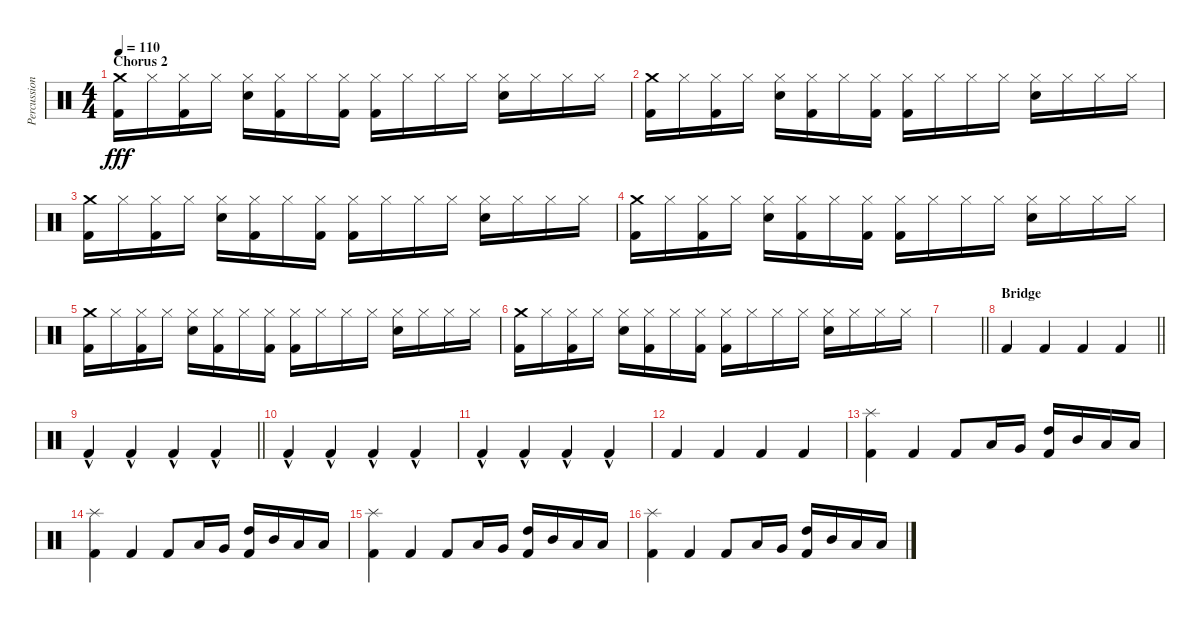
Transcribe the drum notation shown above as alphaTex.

\track ("Percussion" "Percussion") {instrument percussion}
\staff {score}
\articulation defaults
\ts (4 4)
\section ("" "Chorus 2")
\tempo 110
\clef neutral
\ks c
("Crash medium (hit)" "Kick (hit) 2").16{dy fff} "Hi-Hat (closed)".16 ("Hi-Hat (closed)" "Kick (hit) 2").16 "Hi-Hat (closed)".16 ("Hi-Hat (closed)" "Snare (hit) 2").16 ("Hi-Hat (closed)" "Kick (hit) 2").16 "Hi-Hat (closed)".16 ("Hi-Hat (closed)" "Kick (hit) 2").16 ("Hi-Hat (closed)" "Kick (hit) 2").16 "Hi-Hat (closed)".16 "Hi-Hat (closed)".16 "Hi-Hat (closed)".16 ("Hi-Hat (closed)" "Snare (hit) 2").16 "Hi-Hat (closed)".16 "Hi-Hat (closed)".16 "Hi-Hat (closed)".16 |
("Crash medium (hit)" "Kick (hit) 2").16 "Hi-Hat (closed)".16 ("Hi-Hat (closed)" "Kick (hit) 2").16 "Hi-Hat (closed)".16 ("Hi-Hat (closed)" "Snare (hit) 2").16 ("Hi-Hat (closed)" "Kick (hit) 2").16 "Hi-Hat (closed)".16 ("Hi-Hat (closed)" "Kick (hit) 2").16 ("Hi-Hat (closed)" "Kick (hit) 2").16 "Hi-Hat (closed)".16 "Hi-Hat (closed)".16 "Hi-Hat (closed)".16 ("Hi-Hat (closed)" "Snare (hit) 2").16 "Hi-Hat (closed)".16 "Hi-Hat (closed)".16 "Hi-Hat (closed)".16 |
("Crash medium (hit)" "Kick (hit) 2").16 "Hi-Hat (closed)".16 ("Hi-Hat (closed)" "Kick (hit) 2").16 "Hi-Hat (closed)".16 ("Hi-Hat (closed)" "Snare (hit) 2").16 ("Hi-Hat (closed)" "Kick (hit) 2").16 "Hi-Hat (closed)".16 ("Hi-Hat (closed)" "Kick (hit) 2").16 ("Hi-Hat (closed)" "Kick (hit) 2").16 "Hi-Hat (closed)".16 "Hi-Hat (closed)".16 "Hi-Hat (closed)".16 ("Hi-Hat (closed)" "Snare (hit) 2").16 "Hi-Hat (closed)".16 "Hi-Hat (closed)".16 "Hi-Hat (closed)".16 |
("Crash medium (hit)" "Kick (hit) 2").16 "Hi-Hat (closed)".16 ("Hi-Hat (closed)" "Kick (hit) 2").16 "Hi-Hat (closed)".16 ("Hi-Hat (closed)" "Snare (hit) 2").16 ("Hi-Hat (closed)" "Kick (hit) 2").16 "Hi-Hat (closed)".16 ("Hi-Hat (closed)" "Kick (hit) 2").16 ("Hi-Hat (closed)" "Kick (hit) 2").16 "Hi-Hat (closed)".16 "Hi-Hat (closed)".16 "Hi-Hat (closed)".16 ("Hi-Hat (closed)" "Snare (hit) 2").16 "Hi-Hat (closed)".16 "Hi-Hat (closed)".16 "Hi-Hat (closed)".16 |
("Crash medium (hit)" "Kick (hit) 2").16 "Hi-Hat (closed)".16 ("Hi-Hat (closed)" "Kick (hit) 2").16 "Hi-Hat (closed)".16 ("Hi-Hat (closed)" "Snare (hit) 2").16 ("Hi-Hat (closed)" "Kick (hit) 2").16 "Hi-Hat (closed)".16 ("Hi-Hat (closed)" "Kick (hit) 2").16 ("Hi-Hat (closed)" "Kick (hit) 2").16 "Hi-Hat (closed)".16 "Hi-Hat (closed)".16 "Hi-Hat (closed)".16 ("Hi-Hat (closed)" "Snare (hit) 2").16 "Hi-Hat (closed)".16 "Hi-Hat (closed)".16 "Hi-Hat (closed)".16 |
("Crash medium (hit)" "Kick (hit) 2").16 "Hi-Hat (closed)".16 ("Hi-Hat (closed)" "Kick (hit) 2").16 "Hi-Hat (closed)".16 ("Hi-Hat (closed)" "Snare (hit) 2").16 ("Hi-Hat (closed)" "Kick (hit) 2").16 "Hi-Hat (closed)".16 ("Hi-Hat (closed)" "Kick (hit) 2").16 ("Hi-Hat (closed)" "Kick (hit) 2").16 "Hi-Hat (closed)".16 "Hi-Hat (closed)".16 "Hi-Hat (closed)".16 ("Hi-Hat (closed)" "Snare (hit) 2").16 "Hi-Hat (closed)".16 "Hi-Hat (closed)".16 "Hi-Hat (closed)".16 |
\barLineRight lightlight
|
\section ("" "Bridge")
\barLineRight lightlight "Kick (hit) 2".4 "Kick (hit) 2".4 "Kick (hit) 2".4 "Kick (hit) 2".4
|
\barLineRight lightlight "Kick (hit) 2"{hac}.4 "Kick (hit) 2"{hac}.4 "Kick (hit) 2"{hac}.4 "Kick (hit) 2"{hac}.4
|
"Kick (hit) 2"{hac}.4 "Kick (hit) 2"{hac}.4 "Kick (hit) 2"{hac}.4 "Kick (hit) 2"{hac}.4 |
"Kick (hit) 2"{hac}.4 "Kick (hit) 2"{hac}.4 "Kick (hit) 2"{hac}.4 "Kick (hit) 2"{hac}.4 |
"Kick (hit) 2".4 "Kick (hit) 2".4 "Kick (hit) 2".4 "Kick (hit) 2".4 |
("Splash (hit)" "Kick (hit) 2").4 "Kick (hit) 2".4 "Kick (hit) 2".8 "Low Floor Tom (hit)".16 "Very Low Tom (hit)".16 ("Kick (hit) 2" "High Tom (hit)").16 "Mid Tom (hit)".16 "Low Tom (hit)".16 "Low Floor Tom (hit)".16 |
("Splash (hit)" "Kick (hit) 2").4 "Kick (hit) 2".4 "Kick (hit) 2".8 "Low Floor Tom (hit)".16 "Very Low Tom (hit)".16 ("Kick (hit) 2" "High Tom (hit)").16 "Mid Tom (hit)".16 "Low Tom (hit)".16 "Low Floor Tom (hit)".16 |
("Splash (hit)" "Kick (hit) 2").4 "Kick (hit) 2".4 "Kick (hit) 2".8 "Low Floor Tom (hit)".16 "Very Low Tom (hit)".16 ("Kick (hit) 2" "High Tom (hit)").16 "Mid Tom (hit)".16 "Low Tom (hit)".16 "Low Floor Tom (hit)".16 |
("Splash (hit)" "Kick (hit) 2").4 "Kick (hit) 2".4 "Kick (hit) 2".8 "Low Floor Tom (hit)".16 "Very Low Tom (hit)".16 ("Kick (hit) 2" "High Tom (hit)").16 "Mid Tom (hit)".16 "Low Tom (hit)".16 "Low Floor Tom (hit)".16
